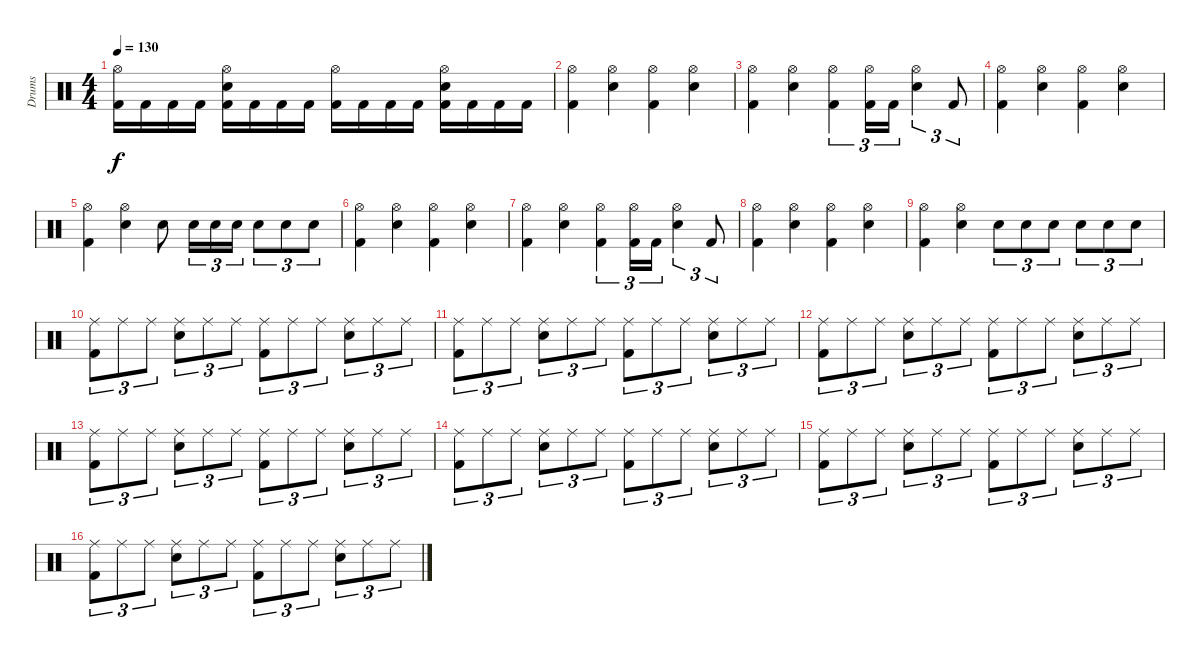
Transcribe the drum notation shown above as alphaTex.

\track ("Drums" "Drums") {instrument percussion}
\staff {score}
\articulation defaults
\ts (4 4)
\tempo 130
\clef neutral
\ks c
("Hi-Hat (open)" "Kick (hit) 2").16{dy f} "Kick (hit) 2".16 "Kick (hit) 2".16 "Kick (hit) 2".16 ("Hi-Hat (open)" "Electric Snare (hit)" "Kick (hit) 2").16 "Kick (hit) 2".16 "Kick (hit) 2".16 "Kick (hit) 2".16 ("Hi-Hat (open)" "Kick (hit) 2").16 "Kick (hit) 2".16 "Kick (hit) 2".16 "Kick (hit) 2".16 ("Hi-Hat (open)" "Electric Snare (hit)" "Kick (hit) 2").16 "Kick (hit) 2".16 "Kick (hit) 2".16 "Kick (hit) 2".16 |
("Hi-Hat (open)" "Kick (hit) 2").4 ("Hi-Hat (open)" "Electric Snare (hit)").4 ("Hi-Hat (open)" "Kick (hit) 2").4 ("Hi-Hat (open)" "Electric Snare (hit)").4 |
("Hi-Hat (open)" "Kick (hit) 2").4 ("Hi-Hat (open)" "Electric Snare (hit)").4 ("Hi-Hat (open)" "Kick (hit) 2").4{tu (3 2)} ("Hi-Hat (open)" "Kick (hit) 2").16{tu (3 2)} "Kick (hit) 2".16{tu (3 2)} ("Hi-Hat (open)" "Electric Snare (hit)").4{tu (3 2)} "Kick (hit) 2".8{tu (3 2)} |
("Hi-Hat (open)" "Kick (hit) 2").4 ("Hi-Hat (open)" "Electric Snare (hit)").4 ("Hi-Hat (open)" "Kick (hit) 2").4 ("Hi-Hat (open)" "Electric Snare (hit)").4 |
("Hi-Hat (open)" "Kick (hit) 2").4 ("Hi-Hat (open)" "Electric Snare (hit)").4 "Electric Snare (hit)".8 "Electric Snare (hit)".16{tu (3 2)} "Electric Snare (hit)".16{tu (3 2)} "Electric Snare (hit)".16{tu (3 2)} "Electric Snare (hit)".8{tu (3 2)} "Electric Snare (hit)".8{tu (3 2)} "Electric Snare (hit)".8{tu (3 2)} |
("Hi-Hat (open)" "Kick (hit) 2").4 ("Hi-Hat (open)" "Electric Snare (hit)").4 ("Hi-Hat (open)" "Kick (hit) 2").4 ("Hi-Hat (open)" "Electric Snare (hit)").4 |
("Hi-Hat (open)" "Kick (hit) 2").4 ("Hi-Hat (open)" "Electric Snare (hit)").4 ("Hi-Hat (open)" "Kick (hit) 2").4{tu (3 2)} ("Hi-Hat (open)" "Kick (hit) 2").16{tu (3 2)} "Kick (hit) 2".16{tu (3 2)} ("Hi-Hat (open)" "Electric Snare (hit)").4{tu (3 2)} "Kick (hit) 2".8{tu (3 2)} |
("Hi-Hat (open)" "Kick (hit) 2").4 ("Hi-Hat (open)" "Electric Snare (hit)").4 ("Hi-Hat (open)" "Kick (hit) 2").4 ("Hi-Hat (open)" "Electric Snare (hit)").4 |
("Hi-Hat (open)" "Kick (hit) 2").4 ("Hi-Hat (open)" "Electric Snare (hit)").4 "Electric Snare (hit)".8{tu (3 2)} "Electric Snare (hit)".8{tu (3 2)} "Electric Snare (hit)".8{tu (3 2)} "Electric Snare (hit)".8{tu (3 2)} "Electric Snare (hit)".8{tu (3 2)} "Electric Snare (hit)".8{tu (3 2)} |
("Ride (middle)" "Kick (hit) 2").8{tu (3 2)} "Ride (middle)".8{tu (3 2)} "Ride (middle)".8{tu (3 2)} ("Ride (middle)" "Electric Snare (hit)").8{tu (3 2)} "Ride (middle)".8{tu (3 2)} "Ride (middle)".8{tu (3 2)} ("Ride (middle)" "Kick (hit) 2").8{tu (3 2)} "Ride (middle)".8{tu (3 2)} "Ride (middle)".8{tu (3 2)} ("Ride (middle)" "Electric Snare (hit)").8{tu (3 2)} "Ride (middle)".8{tu (3 2)} "Ride (middle)".8{tu (3 2)} |
("Ride (middle)" "Kick (hit) 2").8{tu (3 2)} "Ride (middle)".8{tu (3 2)} "Ride (middle)".8{tu (3 2)} ("Ride (middle)" "Electric Snare (hit)").8{tu (3 2)} "Ride (middle)".8{tu (3 2)} "Ride (middle)".8{tu (3 2)} ("Ride (middle)" "Kick (hit) 2").8{tu (3 2)} "Ride (middle)".8{tu (3 2)} "Ride (middle)".8{tu (3 2)} ("Ride (middle)" "Electric Snare (hit)").8{tu (3 2)} "Ride (middle)".8{tu (3 2)} "Ride (middle)".8{tu (3 2)} |
("Ride (middle)" "Kick (hit) 2").8{tu (3 2)} "Ride (middle)".8{tu (3 2)} "Ride (middle)".8{tu (3 2)} ("Ride (middle)" "Electric Snare (hit)").8{tu (3 2)} "Ride (middle)".8{tu (3 2)} "Ride (middle)".8{tu (3 2)} ("Ride (middle)" "Kick (hit) 2").8{tu (3 2)} "Ride (middle)".8{tu (3 2)} "Ride (middle)".8{tu (3 2)} ("Ride (middle)" "Electric Snare (hit)").8{tu (3 2)} "Ride (middle)".8{tu (3 2)} "Ride (middle)".8{tu (3 2)} |
("Ride (middle)" "Kick (hit) 2").8{tu (3 2)} "Ride (middle)".8{tu (3 2)} "Ride (middle)".8{tu (3 2)} ("Ride (middle)" "Electric Snare (hit)").8{tu (3 2)} "Ride (middle)".8{tu (3 2)} "Ride (middle)".8{tu (3 2)} ("Ride (middle)" "Kick (hit) 2").8{tu (3 2)} "Ride (middle)".8{tu (3 2)} "Ride (middle)".8{tu (3 2)} ("Ride (middle)" "Electric Snare (hit)").8{tu (3 2)} "Ride (middle)".8{tu (3 2)} "Ride (middle)".8{tu (3 2)} |
("Ride (middle)" "Kick (hit) 2").8{tu (3 2)} "Ride (middle)".8{tu (3 2)} "Ride (middle)".8{tu (3 2)} ("Ride (middle)" "Electric Snare (hit)").8{tu (3 2)} "Ride (middle)".8{tu (3 2)} "Ride (middle)".8{tu (3 2)} ("Ride (middle)" "Kick (hit) 2").8{tu (3 2)} "Ride (middle)".8{tu (3 2)} "Ride (middle)".8{tu (3 2)} ("Ride (middle)" "Electric Snare (hit)").8{tu (3 2)} "Ride (middle)".8{tu (3 2)} "Ride (middle)".8{tu (3 2)} |
("Ride (middle)" "Kick (hit) 2").8{tu (3 2)} "Ride (middle)".8{tu (3 2)} "Ride (middle)".8{tu (3 2)} ("Ride (middle)" "Electric Snare (hit)").8{tu (3 2)} "Ride (middle)".8{tu (3 2)} "Ride (middle)".8{tu (3 2)} ("Ride (middle)" "Kick (hit) 2").8{tu (3 2)} "Ride (middle)".8{tu (3 2)} "Ride (middle)".8{tu (3 2)} ("Ride (middle)" "Electric Snare (hit)").8{tu (3 2)} "Ride (middle)".8{tu (3 2)} "Ride (middle)".8{tu (3 2)} |
("Ride (middle)" "Kick (hit) 2").8{tu (3 2)} "Ride (middle)".8{tu (3 2)} "Ride (middle)".8{tu (3 2)} ("Ride (middle)" "Electric Snare (hit)").8{tu (3 2)} "Ride (middle)".8{tu (3 2)} "Ride (middle)".8{tu (3 2)} ("Ride (middle)" "Kick (hit) 2").8{tu (3 2)} "Ride (middle)".8{tu (3 2)} "Ride (middle)".8{tu (3 2)} ("Ride (middle)" "Electric Snare (hit)").8{tu (3 2)} "Ride (middle)".8{tu (3 2)} "Ride (middle)".8{tu (3 2)}
